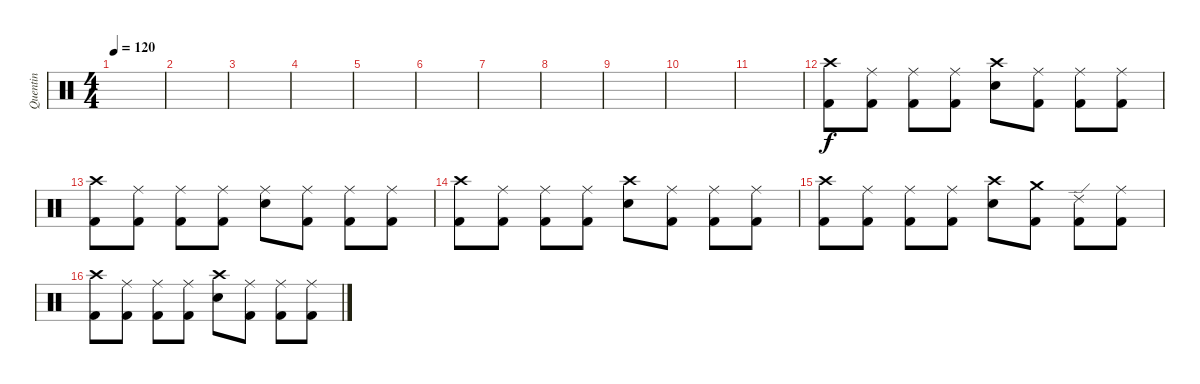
\track ("Quentin" "Quentin") {instrument percussion}
\staff {score}
\articulation defaults
\ts (4 4)
\tempo 120
\clef neutral
\ks c
|
|
|
|
|
|
|
|
|
|
|
("Crash high (hit)" "Kick (hit) 2").8 ("Ride (middle)" "Kick (hit) 2").8 ("Ride (middle)" "Kick (hit) 2").8 ("Ride (middle)" "Kick (hit) 2").8 ("Crash high (hit)" "Electric Snare (hit)").8 ("Ride (middle)" "Kick (hit) 2").8 ("Ride (middle)" "Kick (hit) 2").8 ("Ride (middle)" "Kick (hit) 2").8 |
("Crash high (hit)" "Kick (hit) 2").8 ("Ride (middle)" "Kick (hit) 2").8 ("Ride (middle)" "Kick (hit) 2").8 ("Ride (middle)" "Kick (hit) 2").8 ("Ride (middle)" "Electric Snare (hit)").8 ("Ride (middle)" "Kick (hit) 2").8 ("Ride (middle)" "Kick (hit) 2").8 ("Ride (middle)" "Kick (hit) 2").8 |
("Crash high (hit)" "Kick (hit) 2").8 ("Ride (middle)" "Kick (hit) 2").8 ("Ride (middle)" "Kick (hit) 2").8 ("Ride (middle)" "Kick (hit) 2").8 ("Crash high (hit)" "Electric Snare (hit)").8 ("Ride (middle)" "Kick (hit) 2").8 ("Ride (middle)" "Kick (hit) 2").8 ("Ride (middle)" "Kick (hit) 2").8 |
("Crash high (hit)" "Kick (hit) 2").8 ("Ride (middle)" "Kick (hit) 2").8 ("Ride (middle)" "Kick (hit) 2").8 ("Ride (middle)" "Kick (hit) 2").8 ("Crash high (hit)" "Electric Snare (hit)").8 ("Crash medium (hit)" "Kick (hit) 2").8 ("Ride (edge) 2" "Kick (hit) 2").8 ("Ride (middle)" "Kick (hit) 2").8 |
("Crash high (hit)" "Kick (hit) 2").8 ("Ride (middle)" "Kick (hit) 2").8 ("Ride (middle)" "Kick (hit) 2").8 ("Ride (middle)" "Kick (hit) 2").8 ("Crash high (hit)" "Electric Snare (hit)").8 ("Ride (middle)" "Kick (hit) 2").8 ("Ride (middle)" "Kick (hit) 2").8 ("Ride (middle)" "Kick (hit) 2").8
